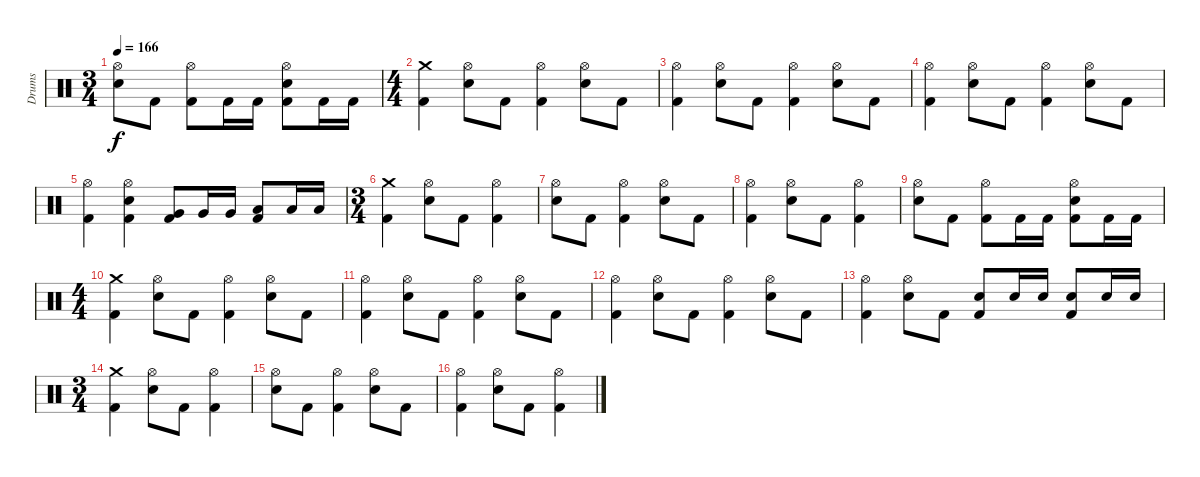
\track ("Drums" "Drums") {instrument percussion}
\staff {score}
\articulation defaults
\ts (3 4)
\tempo 166
\clef neutral
\ks c
("Hi-Hat (open)" "Snare (hit) 2").8{dy f} "Kick (hit) 2".8 ("Hi-Hat (open)" "Kick (hit) 2").8 "Kick (hit) 2".16 "Kick (hit) 2".16 ("Hi-Hat (open)" "Snare (hit) 2" "Kick (hit) 2").8 "Kick (hit) 2".16 "Kick (hit) 2".16 |
\ts (4 4)
("Crash medium (hit)" "Kick (hit) 2").4 ("Hi-Hat (open)" "Snare (hit) 2").8 "Kick (hit) 2".8 ("Hi-Hat (open)" "Kick (hit) 2").4 ("Hi-Hat (open)" "Snare (hit) 2").8 "Kick (hit) 2".8 |
("Hi-Hat (open)" "Kick (hit) 2").4 ("Hi-Hat (open)" "Snare (hit) 2").8 "Kick (hit) 2".8 ("Hi-Hat (open)" "Kick (hit) 2").4 ("Hi-Hat (open)" "Snare (hit) 2").8 "Kick (hit) 2".8 |
("Hi-Hat (open)" "Kick (hit) 2").4 ("Hi-Hat (open)" "Snare (hit) 2").8 "Kick (hit) 2".8 ("Hi-Hat (open)" "Kick (hit) 2").4 ("Hi-Hat (open)" "Snare (hit) 2").8 "Kick (hit) 2".8 |
("Hi-Hat (open)" "Kick (hit) 2").4 ("Hi-Hat (open)" "Snare (hit) 2" "Kick (hit) 2").4 ("Very Low Tom (hit)" "Kick (hit) 2").8 "Very Low Tom (hit)".16 "Very Low Tom (hit)".16 ("Low Tom (hit)" "Kick (hit) 2").8 "Low Tom (hit)".16 "Low Tom (hit)".16 |
\ts (3 4)
("Crash medium (hit)" "Kick (hit) 2").4 ("Hi-Hat (open)" "Snare (hit) 2").8 "Kick (hit) 2".8 ("Hi-Hat (open)" "Kick (hit) 2").4 |
("Hi-Hat (open)" "Snare (hit) 2").8 "Kick (hit) 2".8 ("Hi-Hat (open)" "Kick (hit) 2").4 ("Hi-Hat (open)" "Snare (hit) 2").8 "Kick (hit) 2".8 |
("Hi-Hat (open)" "Kick (hit) 2").4 ("Hi-Hat (open)" "Snare (hit) 2").8 "Kick (hit) 2".8 ("Hi-Hat (open)" "Kick (hit) 2").4 |
("Hi-Hat (open)" "Snare (hit) 2").8 "Kick (hit) 2".8 ("Hi-Hat (open)" "Kick (hit) 2").8 "Kick (hit) 2".16 "Kick (hit) 2".16 ("Hi-Hat (open)" "Snare (hit) 2" "Kick (hit) 2").8 "Kick (hit) 2".16 "Kick (hit) 2".16 |
\ts (4 4)
("Crash medium (hit)" "Kick (hit) 2").4 ("Hi-Hat (open)" "Snare (hit) 2").8 "Kick (hit) 2".8 ("Hi-Hat (open)" "Kick (hit) 2").4 ("Hi-Hat (open)" "Snare (hit) 2").8 "Kick (hit) 2".8 |
("Hi-Hat (open)" "Kick (hit) 2").4 ("Hi-Hat (open)" "Snare (hit) 2").8 "Kick (hit) 2".8 ("Hi-Hat (open)" "Kick (hit) 2").4 ("Hi-Hat (open)" "Snare (hit) 2").8 "Kick (hit) 2".8 |
("Hi-Hat (open)" "Kick (hit) 2").4 ("Hi-Hat (open)" "Snare (hit) 2").8 "Kick (hit) 2".8 ("Hi-Hat (open)" "Kick (hit) 2").4 ("Hi-Hat (open)" "Snare (hit) 2").8 "Kick (hit) 2".8 |
("Hi-Hat (open)" "Kick (hit) 2").4 ("Hi-Hat (open)" "Snare (hit) 2").8 "Kick (hit) 2".8 ("Snare (hit) 2" "Kick (hit) 2").8 "Snare (hit) 2".16 "Snare (hit) 2".16 ("Snare (hit) 2" "Kick (hit) 2").8 "Snare (hit) 2".16 "Snare (hit) 2".16 |
\ts (3 4)
("Crash medium (hit)" "Kick (hit) 2").4 ("Hi-Hat (open)" "Snare (hit) 2").8 "Kick (hit) 2".8 ("Hi-Hat (open)" "Kick (hit) 2").4 |
("Hi-Hat (open)" "Snare (hit) 2").8 "Kick (hit) 2".8 ("Hi-Hat (open)" "Kick (hit) 2").4 ("Hi-Hat (open)" "Snare (hit) 2").8 "Kick (hit) 2".8 |
("Hi-Hat (open)" "Kick (hit) 2").4 ("Hi-Hat (open)" "Snare (hit) 2").8 "Kick (hit) 2".8 ("Hi-Hat (open)" "Kick (hit) 2").4
